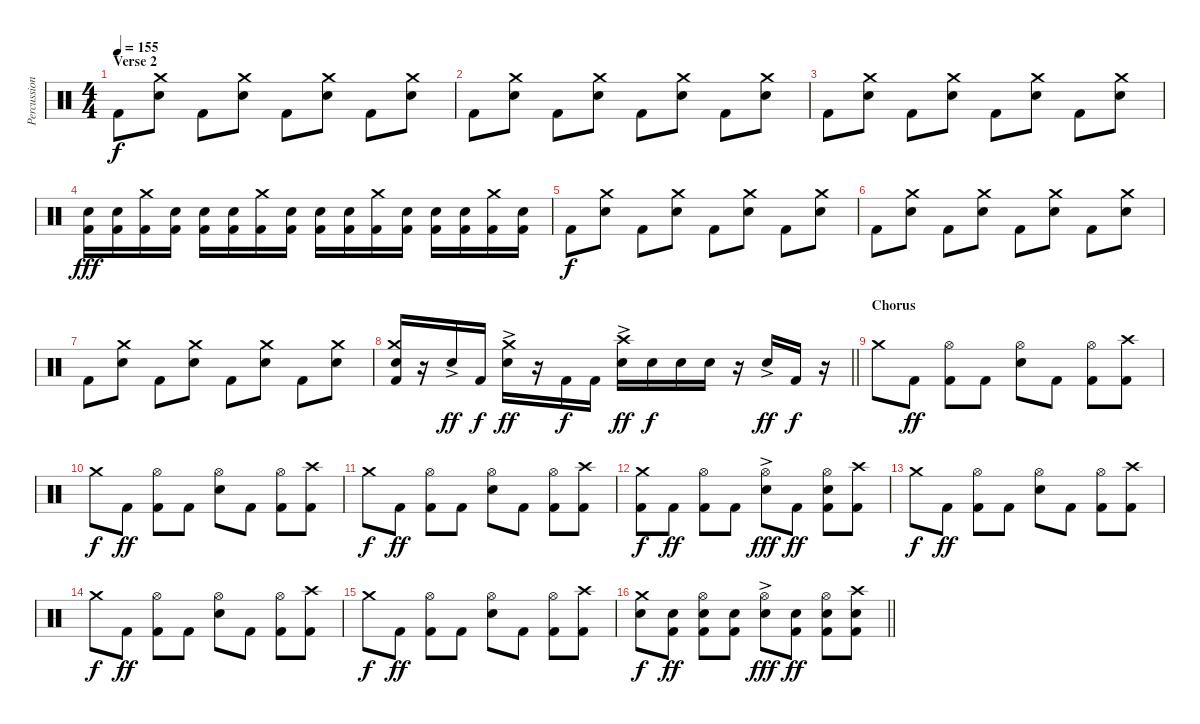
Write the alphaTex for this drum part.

\track ("Percussion (Mike Oliver)" "Percussion") {instrument percussion}
\staff {score}
\articulation defaults
\ts (4 4)
\section ("" "Verse 2")
\tempo 155
\clef neutral
\ks c "Kick (hit) 2".8{dy f}
("Crash medium (hit)" "Snare (hit) 2").8 "Kick (hit) 2".8 ("Crash medium (hit)" "Snare (hit) 2").8 "Kick (hit) 2".8 ("Crash medium (hit)" "Snare (hit) 2").8 "Kick (hit) 2".8 ("Crash medium (hit)" "Snare (hit) 2").8 |
"Kick (hit) 2".8 ("Crash medium (hit)" "Snare (hit) 2").8 "Kick (hit) 2".8 ("Crash medium (hit)" "Snare (hit) 2").8 "Kick (hit) 2".8 ("Crash medium (hit)" "Snare (hit) 2").8 "Kick (hit) 2".8 ("Crash medium (hit)" "Snare (hit) 2").8 |
"Kick (hit) 2".8 ("Crash medium (hit)" "Snare (hit) 2").8 "Kick (hit) 2".8 ("Crash medium (hit)" "Snare (hit) 2").8 "Kick (hit) 2".8 ("Crash medium (hit)" "Snare (hit) 2").8 "Kick (hit) 2".8 ("Crash medium (hit)" "Snare (hit) 2").8 |
("Snare (hit) 2" "Kick (hit) 2").16{dy fff} ("Snare (hit) 2" "Kick (hit) 2").16 ("Crash medium (hit)" "Kick (hit) 2").16 ("Snare (hit) 2" "Kick (hit) 2").16 ("Snare (hit) 2" "Kick (hit) 2").16 ("Snare (hit) 2" "Kick (hit) 2").16 ("Crash medium (hit)" "Kick (hit) 2").16 ("Snare (hit) 2" "Kick (hit) 2").16 ("Snare (hit) 2" "Kick (hit) 2").16 ("Snare (hit) 2" "Kick (hit) 2").16 ("Crash medium (hit)" "Kick (hit) 2").16 ("Snare (hit) 2" "Kick (hit) 2").16 ("Snare (hit) 2" "Kick (hit) 2").16 ("Snare (hit) 2" "Kick (hit) 2").16 ("Crash medium (hit)" "Kick (hit) 2").16 ("Snare (hit) 2" "Kick (hit) 2").16 |
"Kick (hit) 2".8{dy f} ("Crash medium (hit)" "Snare (hit) 2").8 "Kick (hit) 2".8 ("Crash medium (hit)" "Snare (hit) 2").8 "Kick (hit) 2".8 ("Crash medium (hit)" "Snare (hit) 2").8 "Kick (hit) 2".8 ("Crash medium (hit)" "Snare (hit) 2").8 |
"Kick (hit) 2".8 ("Crash medium (hit)" "Snare (hit) 2").8 "Kick (hit) 2".8 ("Crash medium (hit)" "Snare (hit) 2").8 "Kick (hit) 2".8 ("Crash medium (hit)" "Snare (hit) 2").8 "Kick (hit) 2".8 ("Crash medium (hit)" "Snare (hit) 2").8 |
"Kick (hit) 2".8 ("Crash medium (hit)" "Snare (hit) 2").8 "Kick (hit) 2".8 ("Crash medium (hit)" "Snare (hit) 2").8 "Kick (hit) 2".8 ("Crash medium (hit)" "Snare (hit) 2").8 "Kick (hit) 2".8 ("Crash medium (hit)" "Snare (hit) 2").8 |
\barLineRight lightlight
("Crash medium (hit)" "Snare (hit) 2" "Kick (hit) 2").16 r.16 "Snare (hit) 2"{ac}.16{dy ff} "Kick (hit) 2".16{dy f} ("Crash medium (hit)" "Snare (hit) 2"{ac}).16{dy ff} r.16 "Kick (hit) 2".16{dy f} "Kick (hit) 2".16 ("Crash high (hit)" "Snare (hit) 2"{ac}).16{dy ff} "Snare (hit) 2".16{dy f} "Snare (hit) 2".16 "Snare (hit) 2".16 r.16 "Snare (hit) 2"{ac}.16{dy ff} "Kick (hit) 2".16{dy f} r.16 |
\section ("" "Chorus")
"Crash medium (hit)".8 "Kick (hit) 2".8{dy ff} ("Hi-Hat (open)" "Kick (hit) 2").8 "Kick (hit) 2".8 ("Hi-Hat (open)" "Snare (hit) 2").8 "Kick (hit) 2".8 ("Hi-Hat (open)" "Kick (hit) 2").8 ("Crash high (hit)" "Kick (hit) 2").8 |
"Crash medium (hit)".8{dy f} "Kick (hit) 2".8{dy ff} ("Hi-Hat (open)" "Kick (hit) 2").8 "Kick (hit) 2".8 ("Hi-Hat (open)" "Snare (hit) 2").8 "Kick (hit) 2".8 ("Hi-Hat (open)" "Kick (hit) 2").8 ("Crash high (hit)" "Kick (hit) 2").8 |
"Crash medium (hit)".8{dy f} "Kick (hit) 2".8{dy ff} ("Hi-Hat (open)" "Kick (hit) 2").8 "Kick (hit) 2".8 ("Hi-Hat (open)" "Snare (hit) 2").8 "Kick (hit) 2".8 ("Hi-Hat (open)" "Kick (hit) 2").8 ("Crash high (hit)" "Kick (hit) 2").8 |
("Crash medium (hit)" "Kick (hit) 2").8{dy f} "Kick (hit) 2".8{dy ff} ("Hi-Hat (open)" "Kick (hit) 2").8 "Kick (hit) 2".8 ("Hi-Hat (open)" "Snare (hit) 2"{ac}).8{dy fff} "Kick (hit) 2".8{dy ff} ("Hi-Hat (open)" "Snare (hit) 2" "Kick (hit) 2").8 ("Crash high (hit)" "Kick (hit) 2").8 |
"Crash medium (hit)".8{dy f} "Kick (hit) 2".8{dy ff} ("Hi-Hat (open)" "Kick (hit) 2").8 "Kick (hit) 2".8 ("Hi-Hat (open)" "Snare (hit) 2").8 "Kick (hit) 2".8 ("Hi-Hat (open)" "Kick (hit) 2").8 ("Crash high (hit)" "Kick (hit) 2").8 |
"Crash medium (hit)".8{dy f} "Kick (hit) 2".8{dy ff} ("Hi-Hat (open)" "Kick (hit) 2").8 "Kick (hit) 2".8 ("Hi-Hat (open)" "Snare (hit) 2").8 "Kick (hit) 2".8 ("Hi-Hat (open)" "Kick (hit) 2").8 ("Crash high (hit)" "Kick (hit) 2").8 |
"Crash medium (hit)".8{dy f} "Kick (hit) 2".8{dy ff} ("Hi-Hat (open)" "Kick (hit) 2").8 "Kick (hit) 2".8 ("Hi-Hat (open)" "Snare (hit) 2").8 "Kick (hit) 2".8 ("Hi-Hat (open)" "Kick (hit) 2").8 ("Crash high (hit)" "Kick (hit) 2").8 |
\barLineRight lightlight
("Crash medium (hit)" "Snare (hit) 2").8{dy f} ("Snare (hit) 2" "Kick (hit) 2").8{dy ff} ("Hi-Hat (open)" "Snare (hit) 2" "Kick (hit) 2").8 ("Snare (hit) 2" "Kick (hit) 2").8 ("Hi-Hat (open)" "Snare (hit) 2"{ac}).8{dy fff} ("Snare (hit) 2" "Kick (hit) 2").8{dy ff} ("Hi-Hat (open)" "Snare (hit) 2" "Kick (hit) 2").8 ("Crash high (hit)" "Snare (hit) 2" "Kick (hit) 2").8
